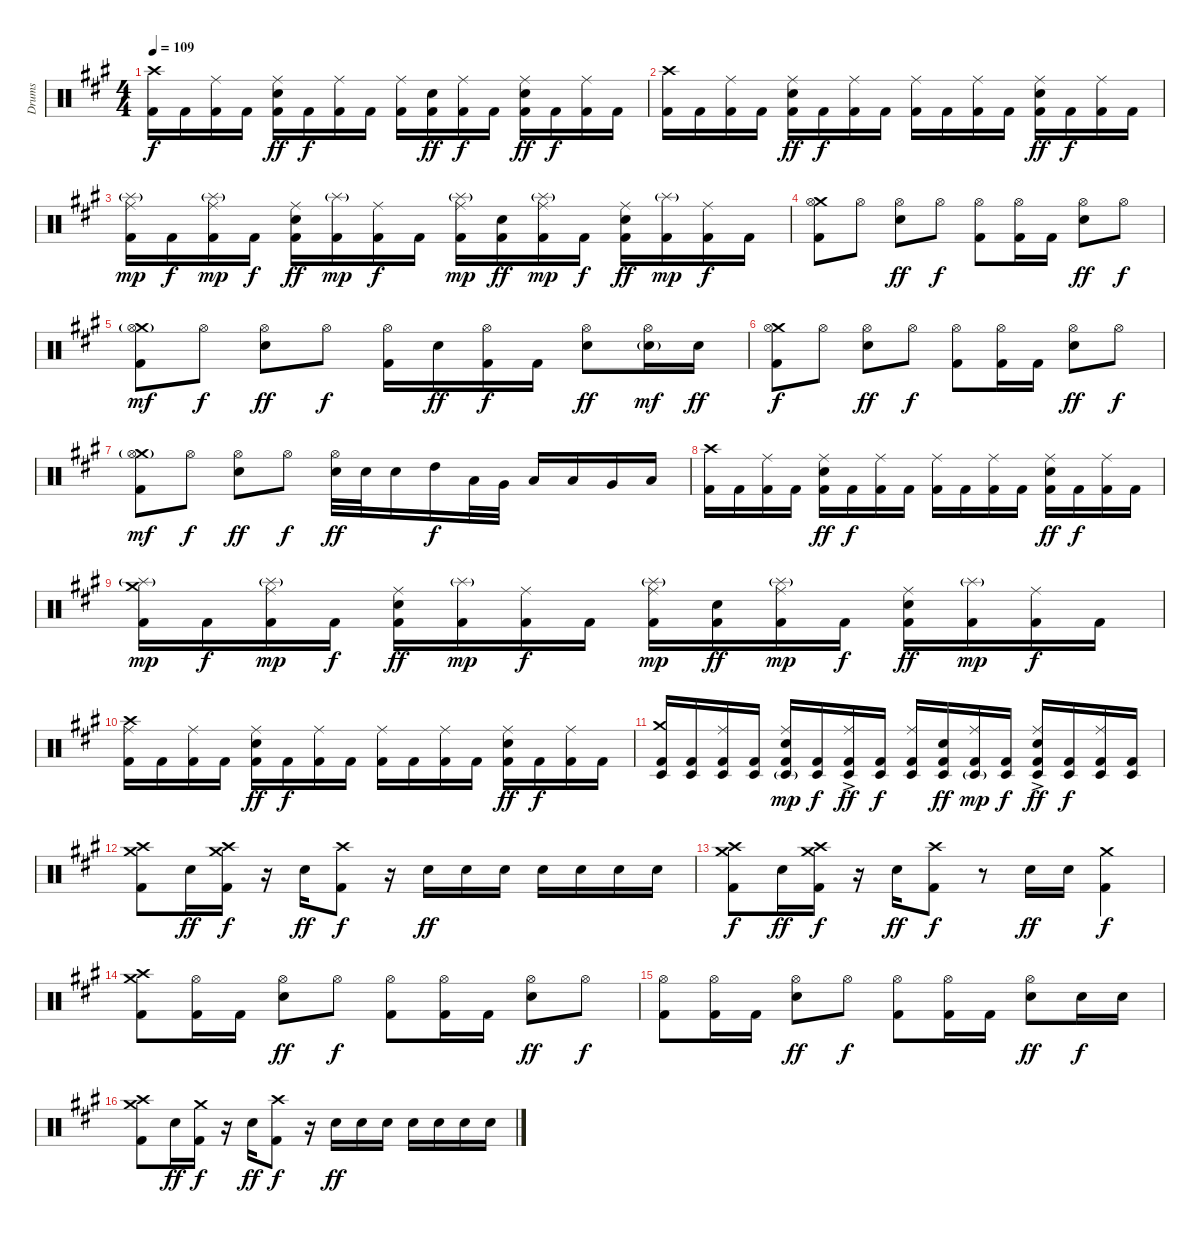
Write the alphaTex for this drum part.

\track ("Drums" "Drums") {instrument percussion}
\staff {score}
\articulation defaults
\ts (4 4)
\tempo 109
\clef neutral
\ks f#minor
("Crash high (hit)" "Kick (hit) 2").16{dy f} "Kick (hit) 2".16 ("Ride (middle)" "Kick (hit) 2").16 "Kick (hit) 2".16 ("Ride (middle)" "Electric Snare (hit)" "Kick (hit) 2").16{dy ff} "Kick (hit) 2".16{dy f} ("Ride (middle)" "Kick (hit) 2").16 "Kick (hit) 2".16 ("Ride (middle)" "Kick (hit) 2").16 ("Electric Snare (hit)" "Kick (hit) 2").16{dy ff} ("Ride (middle)" "Kick (hit) 2").16{dy f} "Kick (hit) 2".16 ("Ride (middle)" "Electric Snare (hit)" "Kick (hit) 2").16{dy ff} "Kick (hit) 2".16{dy f} ("Ride (middle)" "Kick (hit) 2").16 "Kick (hit) 2".16 |
("Crash high (hit)" "Kick (hit) 2").16 "Kick (hit) 2".16 ("Ride (middle)" "Kick (hit) 2").16 "Kick (hit) 2".16 ("Ride (middle)" "Electric Snare (hit)" "Kick (hit) 2").16{dy ff} "Kick (hit) 2".16{dy f} ("Ride (middle)" "Kick (hit) 2").16 "Kick (hit) 2".16 ("Ride (middle)" "Kick (hit) 2").16 "Kick (hit) 2".16 ("Ride (middle)" "Kick (hit) 2").16 "Kick (hit) 2".16 ("Ride (middle)" "Electric Snare (hit)" "Kick (hit) 2").16{dy ff} "Kick (hit) 2".16{dy f} ("Ride (middle)" "Kick (hit) 2").16 "Kick (hit) 2".16 |
("Ride (middle)" "Splash (hit)"{g} "Kick (hit) 2").16{dy mp} "Kick (hit) 2".16{dy f} ("Ride (middle)" "Splash (hit)"{g} "Kick (hit) 2").16{dy mp} "Kick (hit) 2".16{dy f} ("Ride (middle)" "Electric Snare (hit)" "Kick (hit) 2").16{dy ff} ("Splash (hit)"{g} "Kick (hit) 2").16{dy mp} ("Ride (middle)" "Kick (hit) 2").16{dy f} "Kick (hit) 2".16 ("Ride (middle)" "Splash (hit)"{g} "Kick (hit) 2").16{dy mp} ("Electric Snare (hit)" "Kick (hit) 2").16{dy ff} ("Ride (middle)" "Splash (hit)"{g} "Kick (hit) 2").16{dy mp} "Kick (hit) 2".16{dy f} ("Ride (middle)" "Electric Snare (hit)" "Kick (hit) 2").16{dy ff} ("Splash (hit)"{g} "Kick (hit) 2").16{dy mp} ("Ride (middle)" "Kick (hit) 2").16{dy f} "Kick (hit) 2".16 |
("Crash medium (hit)" "Hi-Hat (open)" "Kick (hit) 2").8 "Hi-Hat (open)".8 ("Hi-Hat (open)" "Electric Snare (hit)").8{dy ff} "Hi-Hat (open)".8{dy f} ("Hi-Hat (open)" "Kick (hit) 2").8 ("Hi-Hat (open)" "Kick (hit) 2").16 "Kick (hit) 2".16 ("Hi-Hat (open)" "Electric Snare (hit)").8{dy ff} "Hi-Hat (open)".8{dy f} |
("Crash medium (hit)"{g} "Hi-Hat (open)" "Kick (hit) 2").8{dy mf} "Hi-Hat (open)".8{dy f} ("Hi-Hat (open)" "Electric Snare (hit)").8{dy ff} "Hi-Hat (open)".8{dy f} ("Hi-Hat (open)" "Kick (hit) 2").16 "Electric Snare (hit)".16{dy ff} ("Hi-Hat (open)" "Kick (hit) 2").16{dy f} "Kick (hit) 2".16 ("Hi-Hat (open)" "Electric Snare (hit)").8{dy ff} ("Hi-Hat (open)" "Electric Snare (hit)"{g}).16{dy mf} "Electric Snare (hit)".16{dy ff} |
("Crash medium (hit)" "Hi-Hat (open)" "Kick (hit) 2").8{dy f} "Hi-Hat (open)".8 ("Hi-Hat (open)" "Electric Snare (hit)").8{dy ff} "Hi-Hat (open)".8{dy f} ("Hi-Hat (open)" "Kick (hit) 2").8 ("Hi-Hat (open)" "Kick (hit) 2").16 "Kick (hit) 2".16 ("Hi-Hat (open)" "Electric Snare (hit)").8{dy ff} "Hi-Hat (open)".8{dy f} |
("Crash medium (hit)"{g} "Hi-Hat (open)" "Kick (hit) 2").8{dy mf} "Hi-Hat (open)".8{dy f} ("Hi-Hat (open)" "Electric Snare (hit)").8{dy ff} "Hi-Hat (open)".8{dy f} ("Hi-Hat (open)" "Electric Snare (hit)").32{dy ff} "Electric Snare (hit)".32 "Electric Snare (hit)".16 "High Tom (hit)".16{dy f} "Low Tom (hit)".32 "Very Low Tom (hit)".32 "Low Tom (hit)".16 "Low Tom (hit)".16 "Very Low Tom (hit)".16 "Low Floor Tom (hit)".16 |
("Crash high (hit)" "Kick (hit) 2").16 "Kick (hit) 2".16 ("Ride (middle)" "Kick (hit) 2").16 "Kick (hit) 2".16 ("Ride (middle)" "Electric Snare (hit)" "Kick (hit) 2").16{dy ff} "Kick (hit) 2".16{dy f} ("Ride (middle)" "Kick (hit) 2").16 "Kick (hit) 2".16 ("Ride (middle)" "Kick (hit) 2").16 "Kick (hit) 2".16 ("Ride (middle)" "Kick (hit) 2").16 "Kick (hit) 2".16 ("Ride (middle)" "Electric Snare (hit)" "Kick (hit) 2").16{dy ff} "Kick (hit) 2".16{dy f} ("Ride (middle)" "Kick (hit) 2").16 "Kick (hit) 2".16 |
("Crash medium (hit)" "Splash (hit)"{g} "Kick (hit) 2").16{dy mp} "Kick (hit) 2".16{dy f} ("Ride (middle)" "Splash (hit)"{g} "Kick (hit) 2").16{dy mp} "Kick (hit) 2".16{dy f} ("Ride (middle)" "Electric Snare (hit)" "Kick (hit) 2").16{dy ff} ("Splash (hit)"{g} "Kick (hit) 2").16{dy mp} ("Ride (middle)" "Kick (hit) 2").16{dy f} "Kick (hit) 2".16 ("Ride (middle)" "Splash (hit)"{g} "Kick (hit) 2").16{dy mp} ("Electric Snare (hit)" "Kick (hit) 2").16{dy ff} ("Ride (middle)" "Splash (hit)"{g} "Kick (hit) 2").16{dy mp} "Kick (hit) 2".16{dy f} ("Ride (middle)" "Electric Snare (hit)" "Kick (hit) 2").16{dy ff} ("Splash (hit)"{g} "Kick (hit) 2").16{dy mp} ("Ride (middle)" "Kick (hit) 2").16{dy f} "Kick (hit) 2".16 |
("Ride (middle)" "Crash high (hit)" "Kick (hit) 2").16 "Kick (hit) 2".16 ("Ride (middle)" "Kick (hit) 2").16 "Kick (hit) 2".16 ("Ride (middle)" "Electric Snare (hit)" "Kick (hit) 2").16{dy ff} "Kick (hit) 2".16{dy f} ("Ride (middle)" "Kick (hit) 2").16 "Kick (hit) 2".16 ("Ride (middle)" "Kick (hit) 2").16 "Kick (hit) 2".16 ("Ride (middle)" "Kick (hit) 2").16 "Kick (hit) 2".16 ("Ride (middle)" "Electric Snare (hit)" "Kick (hit) 2").16{dy ff} "Kick (hit) 2".16{dy f} ("Ride (middle)" "Kick (hit) 2").16 "Kick (hit) 2".16 |
("Crash medium (hit)" "Timbale low (hit)" "Kick (hit) 2").16 ("Timbale low (hit)" "Kick (hit) 2").16 ("Ride (middle)" "Timbale low (hit)" "Kick (hit) 2").16 ("Timbale low (hit)" "Kick (hit) 2").16 ("Ride (middle)" "Electric Snare (hit)" "Timbale low (hit)"{g} "Kick (hit) 2").16{dy mp} ("Timbale low (hit)" "Kick (hit) 2").16{dy f} ("Ride (middle)" "Timbale low (hit)"{ac} "Kick (hit) 2").16{dy ff} ("Timbale low (hit)" "Kick (hit) 2").16{dy f} ("Ride (middle)" "Timbale low (hit)" "Kick (hit) 2").16 ("Electric Snare (hit)" "Timbale low (hit)" "Kick (hit) 2").16{dy ff} ("Ride (middle)" "Timbale low (hit)"{g} "Kick (hit) 2").16{dy mp} ("Timbale low (hit)" "Kick (hit) 2").16{dy f} ("Ride (middle)" "Electric Snare (hit)" "Timbale low (hit)"{ac} "Kick (hit) 2").16{dy ff} ("Timbale low (hit)" "Kick (hit) 2").16{dy f} ("Ride (middle)" "Timbale low (hit)" "Kick (hit) 2").16 ("Timbale low (hit)" "Kick (hit) 2").16 |
("Crash medium (hit)" "Crash high (hit)" "Kick (hit) 2").8 "Electric Snare (hit)".16{dy ff} ("Crash medium (hit)" "Crash high (hit)" "Kick (hit) 2").16{dy f} r.16 "Electric Snare (hit)".16{dy ff} ("Crash high (hit)" "Kick (hit) 2").8{dy f} r.16 "Electric Snare (hit)".16{dy ff} "Electric Snare (hit)".16 "Electric Snare (hit)".16 "Electric Snare (hit)".16 "Electric Snare (hit)".16 "Electric Snare (hit)".16 "Electric Snare (hit)".16 |
("Crash medium (hit)" "Crash high (hit)" "Kick (hit) 2").8{dy f} "Electric Snare (hit)".16{dy ff} ("Crash medium (hit)" "Crash high (hit)" "Kick (hit) 2").16{dy f} r.16 "Electric Snare (hit)".16{dy ff} ("Crash high (hit)" "Kick (hit) 2").8{dy f} r.8 "Electric Snare (hit)".16{dy ff} "Electric Snare (hit)".16 ("Crash medium (hit)" "Kick (hit) 2").4{dy f} |
("Crash medium (hit)" "Crash high (hit)" "Kick (hit) 2").8 ("Hi-Hat (open)" "Kick (hit) 2").16 "Kick (hit) 2".16 ("Hi-Hat (open)" "Electric Snare (hit)").8{dy ff} "Hi-Hat (open)".8{dy f} ("Hi-Hat (open)" "Kick (hit) 2").8 ("Hi-Hat (open)" "Kick (hit) 2").16 "Kick (hit) 2".16 ("Hi-Hat (open)" "Electric Snare (hit)").8{dy ff} "Hi-Hat (open)".8{dy f} |
("Hi-Hat (open)" "Kick (hit) 2").8 ("Hi-Hat (open)" "Kick (hit) 2").16 "Kick (hit) 2".16 ("Hi-Hat (open)" "Electric Snare (hit)").8{dy ff} "Hi-Hat (open)".8{dy f} ("Hi-Hat (open)" "Kick (hit) 2").8 ("Hi-Hat (open)" "Kick (hit) 2").16 "Kick (hit) 2".16 ("Hi-Hat (open)" "Electric Snare (hit)").8{dy ff} "Electric Snare (hit)".16{dy f} "Electric Snare (hit)".16 |
("Crash medium (hit)" "Crash high (hit)" "Kick (hit) 2").8 "Electric Snare (hit)".16{dy ff} ("Crash medium (hit)" "Kick (hit) 2").16{dy f} r.16 "Electric Snare (hit)".16{dy ff} ("Crash high (hit)" "Kick (hit) 2").8{dy f} r.16 "Electric Snare (hit)".16{dy ff} "Electric Snare (hit)".16 "Electric Snare (hit)".16 "Electric Snare (hit)".16 "Electric Snare (hit)".16 "Electric Snare (hit)".16 "Electric Snare (hit)".16
